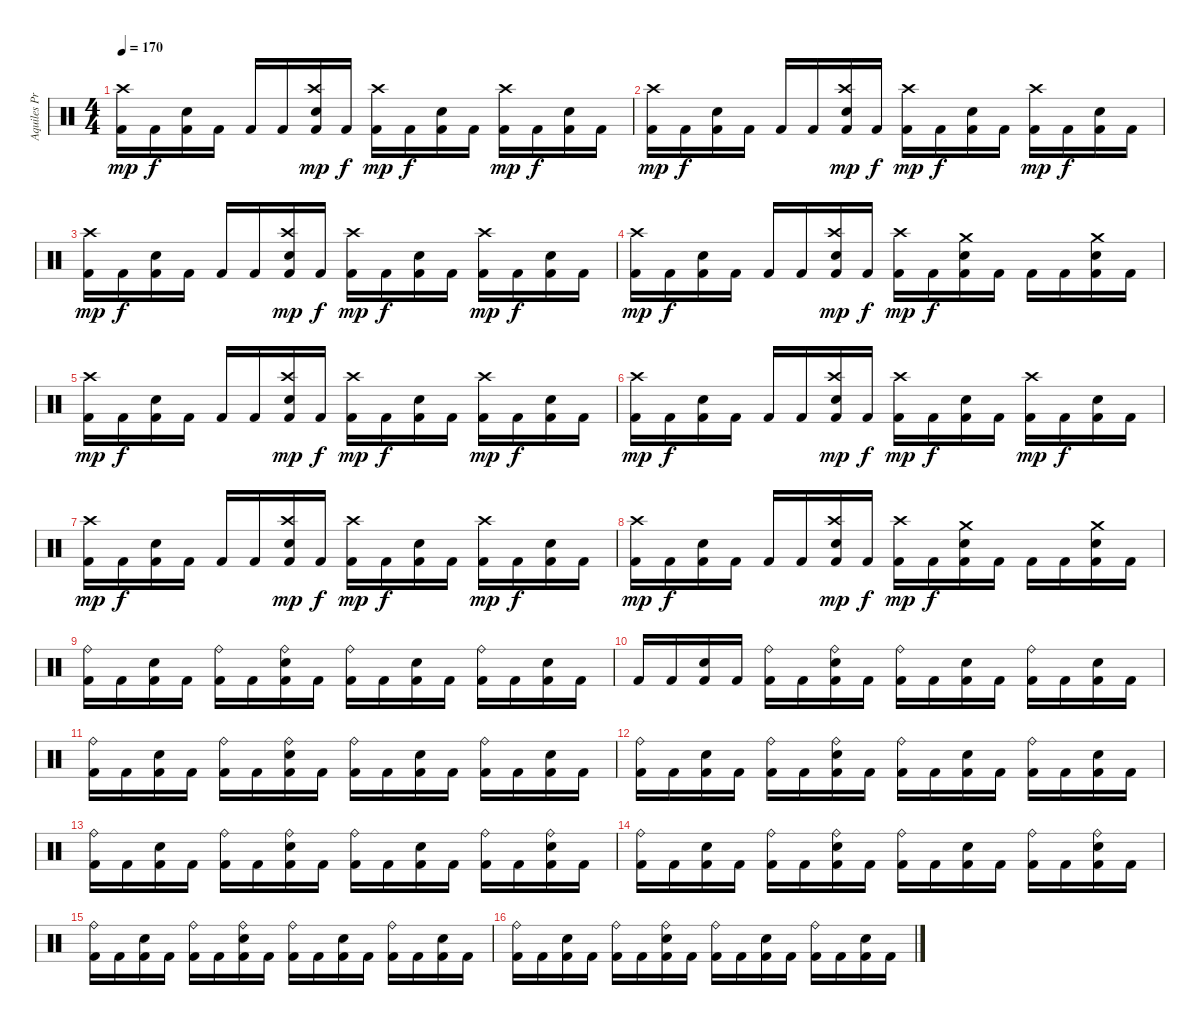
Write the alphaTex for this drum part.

\track ("Aquiles Priester" "Aquiles Pr") {instrument percussion}
\staff {score}
\articulation defaults
\ts (4 4)
\tempo 170
\clef neutral
\ks c
("Kick (hit) 2" "Crash high (hit)").16{dy mp} "Kick (hit) 2".16{dy f} ("Kick (hit) 2" "Snare (hit) 2").16 "Kick (hit) 2".16 "Kick (hit) 2".16 "Kick (hit) 2".16 ("Kick (hit) 2" "Snare (hit) 2" "Crash high (hit)").16{dy mp} "Kick (hit) 2".16{dy f} ("Kick (hit) 2" "Crash high (hit)").16{dy mp} "Kick (hit) 2".16{dy f} ("Kick (hit) 2" "Snare (hit) 2").16 "Kick (hit) 2".16 ("Kick (hit) 2" "Crash high (hit)").16{dy mp} "Kick (hit) 2".16{dy f} ("Kick (hit) 2" "Snare (hit) 2").16 "Kick (hit) 2".16 |
("Kick (hit) 2" "Crash high (hit)").16{dy mp} "Kick (hit) 2".16{dy f} ("Kick (hit) 2" "Snare (hit) 2").16 "Kick (hit) 2".16 "Kick (hit) 2".16 "Kick (hit) 2".16 ("Kick (hit) 2" "Snare (hit) 2" "Crash high (hit)").16{dy mp} "Kick (hit) 2".16{dy f} ("Kick (hit) 2" "Crash high (hit)").16{dy mp} "Kick (hit) 2".16{dy f} ("Kick (hit) 2" "Snare (hit) 2").16 "Kick (hit) 2".16 ("Kick (hit) 2" "Crash high (hit)").16{dy mp} "Kick (hit) 2".16{dy f} ("Kick (hit) 2" "Snare (hit) 2").16 "Kick (hit) 2".16 |
("Kick (hit) 2" "Crash high (hit)").16{dy mp} "Kick (hit) 2".16{dy f} ("Kick (hit) 2" "Snare (hit) 2").16 "Kick (hit) 2".16 "Kick (hit) 2".16 "Kick (hit) 2".16 ("Kick (hit) 2" "Snare (hit) 2" "Crash high (hit)").16{dy mp} "Kick (hit) 2".16{dy f} ("Kick (hit) 2" "Crash high (hit)").16{dy mp} "Kick (hit) 2".16{dy f} ("Kick (hit) 2" "Snare (hit) 2").16 "Kick (hit) 2".16 ("Kick (hit) 2" "Crash high (hit)").16{dy mp} "Kick (hit) 2".16{dy f} ("Kick (hit) 2" "Snare (hit) 2").16 "Kick (hit) 2".16 |
("Kick (hit) 2" "Crash high (hit)").16{dy mp} "Kick (hit) 2".16{dy f} ("Kick (hit) 2" "Snare (hit) 2").16 "Kick (hit) 2".16 "Kick (hit) 2".16 "Kick (hit) 2".16 ("Kick (hit) 2" "Snare (hit) 2" "Crash high (hit)").16{dy mp} "Kick (hit) 2".16{dy f} ("Kick (hit) 2" "Crash high (hit)").16{dy mp} "Kick (hit) 2".16{dy f} ("Kick (hit) 2" "Snare (hit) 2" "Crash medium (hit)").16 "Kick (hit) 2".16 "Kick (hit) 2".16 "Kick (hit) 2".16 ("Kick (hit) 2" "Snare (hit) 2" "Crash medium (hit)").16 "Kick (hit) 2".16 |
("Kick (hit) 2" "Crash high (hit)").16{dy mp} "Kick (hit) 2".16{dy f} ("Kick (hit) 2" "Snare (hit) 2").16 "Kick (hit) 2".16 "Kick (hit) 2".16 "Kick (hit) 2".16 ("Kick (hit) 2" "Snare (hit) 2" "Crash high (hit)").16{dy mp} "Kick (hit) 2".16{dy f} ("Kick (hit) 2" "Crash high (hit)").16{dy mp} "Kick (hit) 2".16{dy f} ("Kick (hit) 2" "Snare (hit) 2").16 "Kick (hit) 2".16 ("Kick (hit) 2" "Crash high (hit)").16{dy mp} "Kick (hit) 2".16{dy f} ("Kick (hit) 2" "Snare (hit) 2").16 "Kick (hit) 2".16 |
("Kick (hit) 2" "Crash high (hit)").16{dy mp} "Kick (hit) 2".16{dy f} ("Kick (hit) 2" "Snare (hit) 2").16 "Kick (hit) 2".16 "Kick (hit) 2".16 "Kick (hit) 2".16 ("Kick (hit) 2" "Snare (hit) 2" "Crash high (hit)").16{dy mp} "Kick (hit) 2".16{dy f} ("Kick (hit) 2" "Crash high (hit)").16{dy mp} "Kick (hit) 2".16{dy f} ("Kick (hit) 2" "Snare (hit) 2").16 "Kick (hit) 2".16 ("Kick (hit) 2" "Crash high (hit)").16{dy mp} "Kick (hit) 2".16{dy f} ("Kick (hit) 2" "Snare (hit) 2").16 "Kick (hit) 2".16 |
("Kick (hit) 2" "Crash high (hit)").16{dy mp} "Kick (hit) 2".16{dy f} ("Kick (hit) 2" "Snare (hit) 2").16 "Kick (hit) 2".16 "Kick (hit) 2".16 "Kick (hit) 2".16 ("Kick (hit) 2" "Snare (hit) 2" "Crash high (hit)").16{dy mp} "Kick (hit) 2".16{dy f} ("Kick (hit) 2" "Crash high (hit)").16{dy mp} "Kick (hit) 2".16{dy f} ("Kick (hit) 2" "Snare (hit) 2").16 "Kick (hit) 2".16 ("Kick (hit) 2" "Crash high (hit)").16{dy mp} "Kick (hit) 2".16{dy f} ("Kick (hit) 2" "Snare (hit) 2").16 "Kick (hit) 2".16 |
("Kick (hit) 2" "Crash high (hit)").16{dy mp} "Kick (hit) 2".16{dy f} ("Kick (hit) 2" "Snare (hit) 2").16 "Kick (hit) 2".16 "Kick (hit) 2".16 "Kick (hit) 2".16 ("Kick (hit) 2" "Snare (hit) 2" "Crash high (hit)").16{dy mp} "Kick (hit) 2".16{dy f} ("Kick (hit) 2" "Crash high (hit)").16{dy mp} "Kick (hit) 2".16{dy f} ("Kick (hit) 2" "Snare (hit) 2" "Crash medium (hit)").16 "Kick (hit) 2".16 "Kick (hit) 2".16 "Kick (hit) 2".16 ("Kick (hit) 2" "Snare (hit) 2" "Crash medium (hit)").16 "Kick (hit) 2".16 |
("Kick (hit) 2" "Ride (bell)").16 "Kick (hit) 2".16 ("Kick (hit) 2" "Snare (hit) 2").16 "Kick (hit) 2".16 ("Kick (hit) 2" "Ride (bell)").16 "Kick (hit) 2".16 ("Kick (hit) 2" "Snare (hit) 2" "Ride (bell)").16 "Kick (hit) 2".16 ("Kick (hit) 2" "Ride (bell)").16 "Kick (hit) 2".16 ("Kick (hit) 2" "Snare (hit) 2").16 "Kick (hit) 2".16 ("Kick (hit) 2" "Ride (bell)").16 "Kick (hit) 2".16 ("Kick (hit) 2" "Snare (hit) 2").16 "Kick (hit) 2".16 |
"Kick (hit) 2".16 "Kick (hit) 2".16 ("Kick (hit) 2" "Snare (hit) 2").16 "Kick (hit) 2".16 ("Kick (hit) 2" "Ride (bell)").16 "Kick (hit) 2".16 ("Kick (hit) 2" "Snare (hit) 2" "Ride (bell)").16 "Kick (hit) 2".16 ("Kick (hit) 2" "Ride (bell)").16 "Kick (hit) 2".16 ("Kick (hit) 2" "Snare (hit) 2").16 "Kick (hit) 2".16 ("Kick (hit) 2" "Ride (bell)").16 "Kick (hit) 2".16 ("Kick (hit) 2" "Snare (hit) 2").16 "Kick (hit) 2".16 |
("Kick (hit) 2" "Ride (bell)").16 "Kick (hit) 2".16 ("Kick (hit) 2" "Snare (hit) 2").16 "Kick (hit) 2".16 ("Kick (hit) 2" "Ride (bell)").16 "Kick (hit) 2".16 ("Kick (hit) 2" "Snare (hit) 2" "Ride (bell)").16 "Kick (hit) 2".16 ("Kick (hit) 2" "Ride (bell)").16 "Kick (hit) 2".16 ("Kick (hit) 2" "Snare (hit) 2").16 "Kick (hit) 2".16 ("Kick (hit) 2" "Ride (bell)").16 "Kick (hit) 2".16 ("Kick (hit) 2" "Snare (hit) 2").16 "Kick (hit) 2".16 |
("Kick (hit) 2" "Ride (bell)").16 "Kick (hit) 2".16 ("Kick (hit) 2" "Snare (hit) 2").16 "Kick (hit) 2".16 ("Kick (hit) 2" "Ride (bell)").16 "Kick (hit) 2".16 ("Kick (hit) 2" "Snare (hit) 2" "Ride (bell)").16 "Kick (hit) 2".16 ("Kick (hit) 2" "Ride (bell)").16 "Kick (hit) 2".16 ("Kick (hit) 2" "Snare (hit) 2").16 "Kick (hit) 2".16 ("Kick (hit) 2" "Ride (bell)").16 "Kick (hit) 2".16 ("Kick (hit) 2" "Snare (hit) 2").16 "Kick (hit) 2".16 |
("Kick (hit) 2" "Ride (bell)").16 "Kick (hit) 2".16 ("Kick (hit) 2" "Snare (hit) 2").16 "Kick (hit) 2".16 ("Kick (hit) 2" "Ride (bell)").16 "Kick (hit) 2".16 ("Kick (hit) 2" "Snare (hit) 2" "Ride (bell)").16 "Kick (hit) 2".16 ("Kick (hit) 2" "Ride (bell)").16 "Kick (hit) 2".16 ("Kick (hit) 2" "Snare (hit) 2").16 "Kick (hit) 2".16 ("Kick (hit) 2" "Ride (bell)").16 "Kick (hit) 2".16 ("Kick (hit) 2" "Snare (hit) 2" "Ride (bell)").16 "Kick (hit) 2".16 |
("Kick (hit) 2" "Ride (bell)").16 "Kick (hit) 2".16 ("Kick (hit) 2" "Snare (hit) 2").16 "Kick (hit) 2".16 ("Kick (hit) 2" "Ride (bell)").16 "Kick (hit) 2".16 ("Kick (hit) 2" "Snare (hit) 2" "Ride (bell)").16 "Kick (hit) 2".16 ("Kick (hit) 2" "Ride (bell)").16 "Kick (hit) 2".16 ("Kick (hit) 2" "Snare (hit) 2").16 "Kick (hit) 2".16 ("Kick (hit) 2" "Ride (bell)").16 "Kick (hit) 2".16 ("Kick (hit) 2" "Snare (hit) 2" "Ride (bell)").16 "Kick (hit) 2".16 |
("Kick (hit) 2" "Ride (bell)").16 "Kick (hit) 2".16 ("Kick (hit) 2" "Snare (hit) 2").16 "Kick (hit) 2".16 ("Kick (hit) 2" "Ride (bell)").16 "Kick (hit) 2".16 ("Kick (hit) 2" "Snare (hit) 2" "Ride (bell)").16 "Kick (hit) 2".16 ("Kick (hit) 2" "Ride (bell)").16 "Kick (hit) 2".16 ("Kick (hit) 2" "Snare (hit) 2").16 "Kick (hit) 2".16 ("Kick (hit) 2" "Ride (bell)").16 "Kick (hit) 2".16 ("Kick (hit) 2" "Snare (hit) 2").16 "Kick (hit) 2".16 |
("Kick (hit) 2" "Ride (bell)").16 "Kick (hit) 2".16 ("Kick (hit) 2" "Snare (hit) 2").16 "Kick (hit) 2".16 ("Kick (hit) 2" "Ride (bell)").16 "Kick (hit) 2".16 ("Kick (hit) 2" "Snare (hit) 2" "Ride (bell)").16 "Kick (hit) 2".16 ("Kick (hit) 2" "Ride (bell)").16 "Kick (hit) 2".16 ("Kick (hit) 2" "Snare (hit) 2").16 "Kick (hit) 2".16 ("Kick (hit) 2" "Ride (bell)").16 "Kick (hit) 2".16 ("Kick (hit) 2" "Snare (hit) 2").16 "Kick (hit) 2".16
